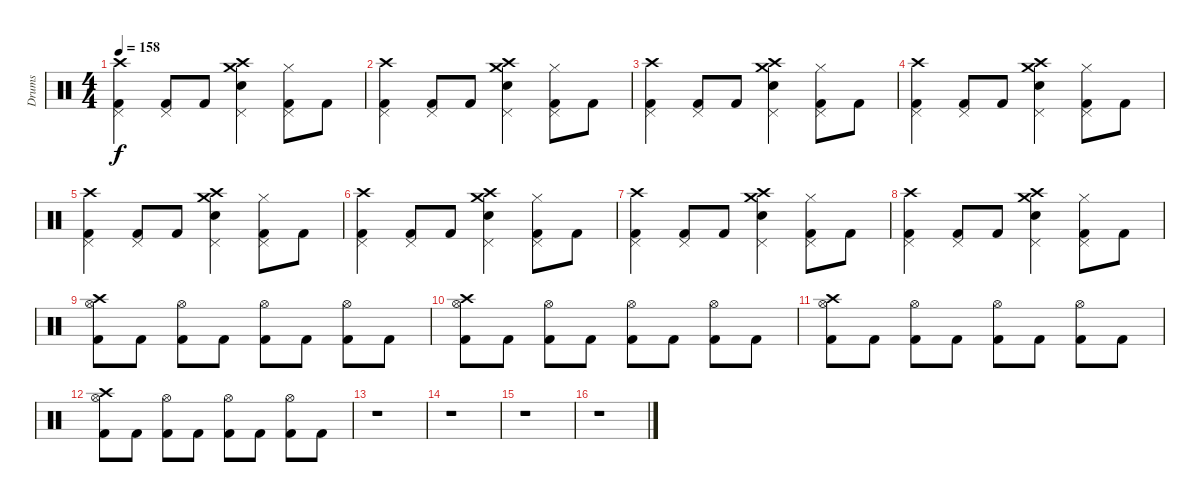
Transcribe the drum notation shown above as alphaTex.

\track ("Drums" "Drums") {instrument percussion}
\staff {score}
\articulation defaults
\ts (4 4)
\tempo 158
\clef neutral
\ks c
("Crash high (hit)" "Kick (hit) 2" "Pedal Hi-Hat (hit)").4{dy f} ("Kick (hit) 2" "Pedal Hi-Hat (hit)").8 "Kick (hit) 2".8 ("Crash high (hit)" "Crash medium (hit)" "Snare (hit) 2" "Pedal Hi-Hat (hit)").4 ("Hi-Hat (closed)" "Kick (hit) 2" "Pedal Hi-Hat (hit)").8 "Kick (hit) 2".8 |
("Crash high (hit)" "Kick (hit) 2" "Pedal Hi-Hat (hit)").4 ("Kick (hit) 2" "Pedal Hi-Hat (hit)").8 "Kick (hit) 2".8 ("Crash high (hit)" "Crash medium (hit)" "Snare (hit) 2" "Pedal Hi-Hat (hit)").4 ("Hi-Hat (closed)" "Kick (hit) 2" "Pedal Hi-Hat (hit)").8 "Kick (hit) 2".8 |
("Crash high (hit)" "Kick (hit) 2" "Pedal Hi-Hat (hit)").4 ("Kick (hit) 2" "Pedal Hi-Hat (hit)").8 "Kick (hit) 2".8 ("Crash high (hit)" "Crash medium (hit)" "Snare (hit) 2" "Pedal Hi-Hat (hit)").4 ("Hi-Hat (closed)" "Kick (hit) 2" "Pedal Hi-Hat (hit)").8 "Kick (hit) 2".8 |
("Crash high (hit)" "Kick (hit) 2" "Pedal Hi-Hat (hit)").4 ("Kick (hit) 2" "Pedal Hi-Hat (hit)").8 "Kick (hit) 2".8 ("Crash high (hit)" "Crash medium (hit)" "Snare (hit) 2" "Pedal Hi-Hat (hit)").4 ("Hi-Hat (closed)" "Kick (hit) 2" "Pedal Hi-Hat (hit)").8 "Kick (hit) 2".8 |
("Crash high (hit)" "Kick (hit) 2" "Pedal Hi-Hat (hit)").4 ("Kick (hit) 2" "Pedal Hi-Hat (hit)").8 "Kick (hit) 2".8 ("Crash high (hit)" "Crash medium (hit)" "Snare (hit) 2" "Pedal Hi-Hat (hit)").4 ("Hi-Hat (closed)" "Kick (hit) 2" "Pedal Hi-Hat (hit)").8 "Kick (hit) 2".8 |
("Crash high (hit)" "Kick (hit) 2" "Pedal Hi-Hat (hit)").4 ("Kick (hit) 2" "Pedal Hi-Hat (hit)").8 "Kick (hit) 2".8 ("Crash high (hit)" "Crash medium (hit)" "Snare (hit) 2" "Pedal Hi-Hat (hit)").4 ("Hi-Hat (closed)" "Kick (hit) 2" "Pedal Hi-Hat (hit)").8 "Kick (hit) 2".8 |
("Crash high (hit)" "Kick (hit) 2" "Pedal Hi-Hat (hit)").4 ("Kick (hit) 2" "Pedal Hi-Hat (hit)").8 "Kick (hit) 2".8 ("Crash high (hit)" "Crash medium (hit)" "Snare (hit) 2" "Pedal Hi-Hat (hit)").4 ("Hi-Hat (closed)" "Kick (hit) 2" "Pedal Hi-Hat (hit)").8 "Kick (hit) 2".8 |
("Crash high (hit)" "Kick (hit) 2" "Pedal Hi-Hat (hit)").4 ("Kick (hit) 2" "Pedal Hi-Hat (hit)").8 "Kick (hit) 2".8 ("Crash high (hit)" "Crash medium (hit)" "Snare (hit) 2" "Pedal Hi-Hat (hit)").4 ("Hi-Hat (closed)" "Kick (hit) 2" "Pedal Hi-Hat (hit)").8 "Kick (hit) 2".8 |
("Crash high (hit)" "Kick (hit) 2" "Hi-Hat (open)").8 "Kick (hit) 2".8 ("Kick (hit) 2" "Hi-Hat (open)").8 "Kick (hit) 2".8 ("Kick (hit) 2" "Hi-Hat (open)").8 "Kick (hit) 2".8 ("Kick (hit) 2" "Hi-Hat (open)").8 "Kick (hit) 2".8 |
("Crash high (hit)" "Kick (hit) 2" "Hi-Hat (open)").8 "Kick (hit) 2".8 ("Kick (hit) 2" "Hi-Hat (open)").8 "Kick (hit) 2".8 ("Kick (hit) 2" "Hi-Hat (open)").8 "Kick (hit) 2".8 ("Kick (hit) 2" "Hi-Hat (open)").8 "Kick (hit) 2".8 |
("Crash high (hit)" "Kick (hit) 2" "Hi-Hat (open)").8 "Kick (hit) 2".8 ("Kick (hit) 2" "Hi-Hat (open)").8 "Kick (hit) 2".8 ("Kick (hit) 2" "Hi-Hat (open)").8 "Kick (hit) 2".8 ("Kick (hit) 2" "Hi-Hat (open)").8 "Kick (hit) 2".8 |
("Crash high (hit)" "Kick (hit) 2" "Hi-Hat (open)").8 "Kick (hit) 2".8 ("Kick (hit) 2" "Hi-Hat (open)").8 "Kick (hit) 2".8 ("Kick (hit) 2" "Hi-Hat (open)").8 "Kick (hit) 2".8 ("Kick (hit) 2" "Hi-Hat (open)").8 "Kick (hit) 2".8 |
r.1 |
r.1 |
r.1 |
r.1
